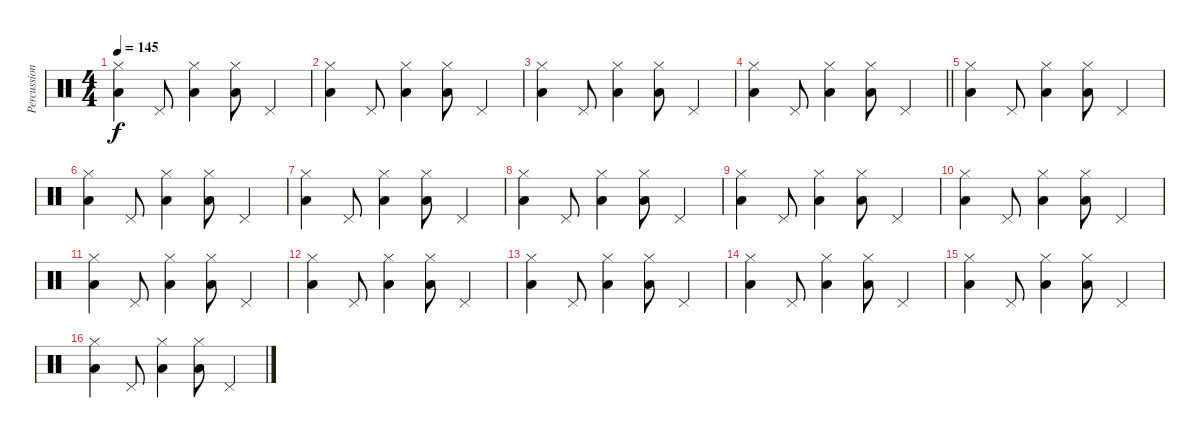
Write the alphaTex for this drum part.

\track ("Percussion" "Percussion") {instrument percussion}
\staff {score}
\articulation defaults
\ts (4 4)
\tempo 145
\clef neutral
\ks c
("Hi-Hat (closed)" "Low Floor Tom (hit)").4{dy f} "Pedal Hi-Hat (hit)".8 ("Hi-Hat (closed)" "Low Floor Tom (hit)").4 ("Hi-Hat (closed)" "Low Floor Tom (hit)").8 "Pedal Hi-Hat (hit)".4 |
("Hi-Hat (closed)" "Low Floor Tom (hit)").4 "Pedal Hi-Hat (hit)".8 ("Hi-Hat (closed)" "Low Floor Tom (hit)").4 ("Hi-Hat (closed)" "Low Floor Tom (hit)").8 "Pedal Hi-Hat (hit)".4 |
("Hi-Hat (closed)" "Low Floor Tom (hit)").4 "Pedal Hi-Hat (hit)".8 ("Hi-Hat (closed)" "Low Floor Tom (hit)").4 ("Hi-Hat (closed)" "Low Floor Tom (hit)").8 "Pedal Hi-Hat (hit)".4 |
\barLineRight lightlight
("Hi-Hat (closed)" "Low Floor Tom (hit)").4 "Pedal Hi-Hat (hit)".8 ("Hi-Hat (closed)" "Low Floor Tom (hit)").4 ("Hi-Hat (closed)" "Low Floor Tom (hit)").8 "Pedal Hi-Hat (hit)".4 |
("Hi-Hat (closed)" "Low Floor Tom (hit)").4 "Pedal Hi-Hat (hit)".8 ("Hi-Hat (closed)" "Low Floor Tom (hit)").4 ("Hi-Hat (closed)" "Low Floor Tom (hit)").8 "Pedal Hi-Hat (hit)".4 |
("Hi-Hat (closed)" "Low Floor Tom (hit)").4 "Pedal Hi-Hat (hit)".8 ("Hi-Hat (closed)" "Low Floor Tom (hit)").4 ("Hi-Hat (closed)" "Low Floor Tom (hit)").8 "Pedal Hi-Hat (hit)".4 |
("Hi-Hat (closed)" "Low Floor Tom (hit)").4 "Pedal Hi-Hat (hit)".8 ("Hi-Hat (closed)" "Low Floor Tom (hit)").4 ("Hi-Hat (closed)" "Low Floor Tom (hit)").8 "Pedal Hi-Hat (hit)".4 |
("Hi-Hat (closed)" "Low Floor Tom (hit)").4 "Pedal Hi-Hat (hit)".8 ("Hi-Hat (closed)" "Low Floor Tom (hit)").4 ("Hi-Hat (closed)" "Low Floor Tom (hit)").8 "Pedal Hi-Hat (hit)".4 |
("Hi-Hat (closed)" "Low Floor Tom (hit)").4 "Pedal Hi-Hat (hit)".8 ("Hi-Hat (closed)" "Low Floor Tom (hit)").4 ("Hi-Hat (closed)" "Low Floor Tom (hit)").8 "Pedal Hi-Hat (hit)".4 |
("Hi-Hat (closed)" "Low Floor Tom (hit)").4 "Pedal Hi-Hat (hit)".8 ("Hi-Hat (closed)" "Low Floor Tom (hit)").4 ("Hi-Hat (closed)" "Low Floor Tom (hit)").8 "Pedal Hi-Hat (hit)".4 |
("Hi-Hat (closed)" "Low Floor Tom (hit)").4 "Pedal Hi-Hat (hit)".8 ("Hi-Hat (closed)" "Low Floor Tom (hit)").4 ("Hi-Hat (closed)" "Low Floor Tom (hit)").8 "Pedal Hi-Hat (hit)".4 |
("Hi-Hat (closed)" "Low Floor Tom (hit)").4 "Pedal Hi-Hat (hit)".8 ("Hi-Hat (closed)" "Low Floor Tom (hit)").4 ("Hi-Hat (closed)" "Low Floor Tom (hit)").8 "Pedal Hi-Hat (hit)".4 |
("Hi-Hat (closed)" "Low Floor Tom (hit)").4 "Pedal Hi-Hat (hit)".8 ("Hi-Hat (closed)" "Low Floor Tom (hit)").4 ("Hi-Hat (closed)" "Low Floor Tom (hit)").8 "Pedal Hi-Hat (hit)".4 |
("Hi-Hat (closed)" "Low Floor Tom (hit)").4 "Pedal Hi-Hat (hit)".8 ("Hi-Hat (closed)" "Low Floor Tom (hit)").4 ("Hi-Hat (closed)" "Low Floor Tom (hit)").8 "Pedal Hi-Hat (hit)".4 |
("Hi-Hat (closed)" "Low Floor Tom (hit)").4 "Pedal Hi-Hat (hit)".8 ("Hi-Hat (closed)" "Low Floor Tom (hit)").4 ("Hi-Hat (closed)" "Low Floor Tom (hit)").8 "Pedal Hi-Hat (hit)".4 |
("Hi-Hat (closed)" "Low Floor Tom (hit)").4 "Pedal Hi-Hat (hit)".8 ("Hi-Hat (closed)" "Low Floor Tom (hit)").4 ("Hi-Hat (closed)" "Low Floor Tom (hit)").8 "Pedal Hi-Hat (hit)".4
